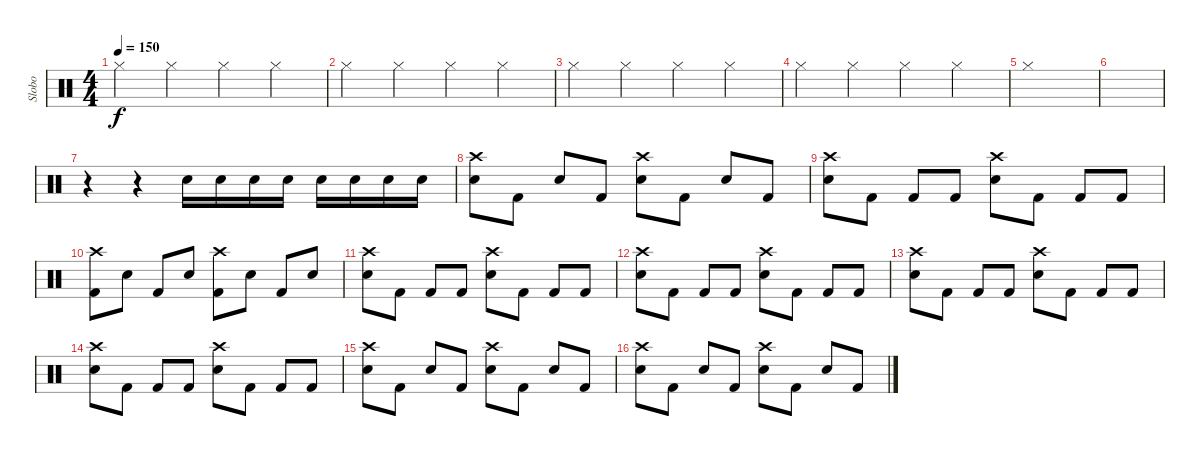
\track ("Slobo" "Slobo") {instrument percussion}
\staff {score}
\articulation defaults
\ts (4 4)
\tempo 150
\clef neutral
\ks c "Hi-Hat (closed)".4{dy f} "Hi-Hat (closed)".4 "Hi-Hat (closed)".4 "Hi-Hat (closed)".4
|
"Hi-Hat (closed)".4 "Hi-Hat (closed)".4 "Hi-Hat (closed)".4 "Hi-Hat (closed)".4 |
"Hi-Hat (closed)".4 "Hi-Hat (closed)".4 "Hi-Hat (closed)".4 "Hi-Hat (closed)".4 |
"Hi-Hat (closed)".4 "Hi-Hat (closed)".4 "Hi-Hat (closed)".4 "Hi-Hat (closed)".4 |
"Hi-Hat (closed)".1 |
|
r.4 r.4 "Snare (hit) 2".16 "Snare (hit) 2".16 "Snare (hit) 2".16 "Snare (hit) 2".16 "Snare (hit) 2".16 "Snare (hit) 2".16 "Snare (hit) 2".16 "Snare (hit) 2".16 |
("Crash high (hit)" "Snare (hit) 2").8 "Kick (hit) 2".8 "Snare (hit) 2".8 "Kick (hit) 2".8 ("Crash high (hit)" "Snare (hit) 2").8 "Kick (hit) 2".8 "Snare (hit) 2".8 "Kick (hit) 2".8 |
("Crash high (hit)" "Snare (hit) 2").8 "Kick (hit) 2".8 "Kick (hit) 2".8 "Kick (hit) 2".8 ("Crash high (hit)" "Snare (hit) 2").8 "Kick (hit) 2".8 "Kick (hit) 2".8 "Kick (hit) 2".8 |
("Crash high (hit)" "Kick (hit) 2").8 "Snare (hit) 2".8 "Kick (hit) 2".8 "Snare (hit) 2".8 ("Crash high (hit)" "Kick (hit) 2").8 "Snare (hit) 2".8 "Kick (hit) 2".8 "Snare (hit) 2".8 |
("Crash high (hit)" "Snare (hit) 2").8 "Kick (hit) 2".8 "Kick (hit) 2".8 "Kick (hit) 2".8 ("Crash high (hit)" "Snare (hit) 2").8 "Kick (hit) 2".8 "Kick (hit) 2".8 "Kick (hit) 2".8 |
("Crash high (hit)" "Snare (hit) 2").8 "Kick (hit) 2".8 "Kick (hit) 2".8 "Kick (hit) 2".8 ("Crash high (hit)" "Snare (hit) 2").8 "Kick (hit) 2".8 "Kick (hit) 2".8 "Kick (hit) 2".8 |
("Crash high (hit)" "Snare (hit) 2").8 "Kick (hit) 2".8 "Kick (hit) 2".8 "Kick (hit) 2".8 ("Crash high (hit)" "Snare (hit) 2").8 "Kick (hit) 2".8 "Kick (hit) 2".8 "Kick (hit) 2".8 |
("Crash high (hit)" "Snare (hit) 2").8 "Kick (hit) 2".8 "Kick (hit) 2".8 "Kick (hit) 2".8 ("Crash high (hit)" "Snare (hit) 2").8 "Kick (hit) 2".8 "Kick (hit) 2".8 "Kick (hit) 2".8 |
("Crash high (hit)" "Snare (hit) 2").8 "Kick (hit) 2".8 "Snare (hit) 2".8 "Kick (hit) 2".8 ("Crash high (hit)" "Snare (hit) 2").8 "Kick (hit) 2".8 "Snare (hit) 2".8 "Kick (hit) 2".8 |
("Crash high (hit)" "Snare (hit) 2").8 "Kick (hit) 2".8 "Snare (hit) 2".8 "Kick (hit) 2".8 ("Crash high (hit)" "Snare (hit) 2").8 "Kick (hit) 2".8 "Snare (hit) 2".8 "Kick (hit) 2".8
